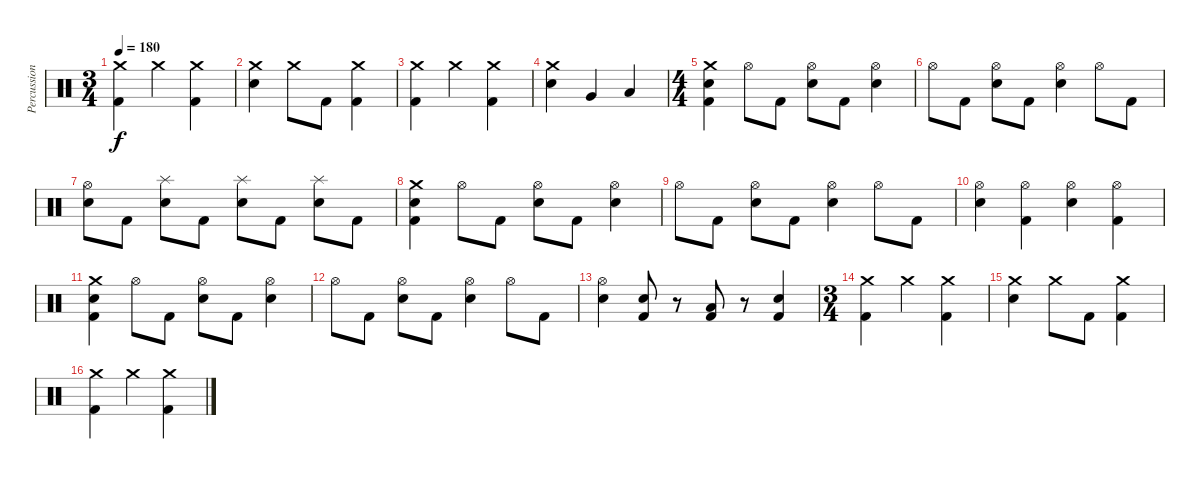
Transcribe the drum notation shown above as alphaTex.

\track ("Percussion" "Percussion") {instrument percussion}
\staff {score}
\articulation defaults
\ts (3 4)
\tempo 180
\clef neutral
\ks c
("Crash medium (hit)" "Kick (hit) 2").4{dy f} "Crash medium (hit)".4 ("Crash medium (hit)" "Kick (hit) 2").4 |
("Crash medium (hit)" "Snare (hit) 2").4 "Crash medium (hit)".8 "Kick (hit) 2".8 ("Crash medium (hit)" "Kick (hit) 2").4 |
("Crash medium (hit)" "Kick (hit) 2").4 "Crash medium (hit)".4 ("Crash medium (hit)" "Kick (hit) 2").4 |
("Crash medium (hit)" "Snare (hit) 2").4 "Very Low Tom (hit)".4 "Low Floor Tom (hit)".4 |
\ts (4 4)
("Crash medium (hit)" "Snare (hit) 2" "Kick (hit) 2").4 "Hi-Hat (open)".8 "Kick (hit) 2".8 ("Hi-Hat (open)" "Snare (hit) 2").8 "Kick (hit) 2".8 ("Hi-Hat (open)" "Snare (hit) 2").4 |
"Hi-Hat (open)".8 "Kick (hit) 2".8 ("Hi-Hat (open)" "Snare (hit) 2").8 "Kick (hit) 2".8 ("Hi-Hat (open)" "Snare (hit) 2").4 "Hi-Hat (open)".8 "Kick (hit) 2".8 |
("Hi-Hat (open)" "Snare (hit) 2").8 "Kick (hit) 2".8 ("Splash (hit)" "Snare (hit) 2").8 "Kick (hit) 2".8 ("Splash (hit)" "Snare (hit) 2").8 "Kick (hit) 2".8 ("Splash (hit)" "Snare (hit) 2").8 "Kick (hit) 2".8 |
("Crash medium (hit)" "Snare (hit) 2" "Kick (hit) 2").4 "Hi-Hat (open)".8 "Kick (hit) 2".8 ("Hi-Hat (open)" "Snare (hit) 2").8 "Kick (hit) 2".8 ("Hi-Hat (open)" "Snare (hit) 2").4 |
"Hi-Hat (open)".8 "Kick (hit) 2".8 ("Hi-Hat (open)" "Snare (hit) 2").8 "Kick (hit) 2".8 ("Hi-Hat (open)" "Snare (hit) 2").4 "Hi-Hat (open)".8 "Kick (hit) 2".8 |
("Hi-Hat (open)" "Snare (hit) 2").4 ("Hi-Hat (open)" "Kick (hit) 2").4 ("Hi-Hat (open)" "Snare (hit) 2").4 ("Hi-Hat (open)" "Kick (hit) 2").4 |
("Crash medium (hit)" "Snare (hit) 2" "Kick (hit) 2").4 "Hi-Hat (open)".8 "Kick (hit) 2".8 ("Hi-Hat (open)" "Snare (hit) 2").8 "Kick (hit) 2".8 ("Hi-Hat (open)" "Snare (hit) 2").4 |
"Hi-Hat (open)".8 "Kick (hit) 2".8 ("Hi-Hat (open)" "Snare (hit) 2").8 "Kick (hit) 2".8 ("Hi-Hat (open)" "Snare (hit) 2").4 "Hi-Hat (open)".8 "Kick (hit) 2".8 |
("Hi-Hat (open)" "Snare (hit) 2").4 ("Snare (hit) 2" "Kick (hit) 2").8 r.8 ("Low Tom (hit)" "Kick (hit) 2").8 r.8 ("Snare (hit) 2" "Kick (hit) 2").4 |
\ts (3 4)
("Crash medium (hit)" "Kick (hit) 2").4 "Crash medium (hit)".4 ("Crash medium (hit)" "Kick (hit) 2").4 |
("Crash medium (hit)" "Snare (hit) 2").4 "Crash medium (hit)".8 "Kick (hit) 2".8 ("Crash medium (hit)" "Kick (hit) 2").4 |
("Crash medium (hit)" "Kick (hit) 2").4 "Crash medium (hit)".4 ("Crash medium (hit)" "Kick (hit) 2").4
